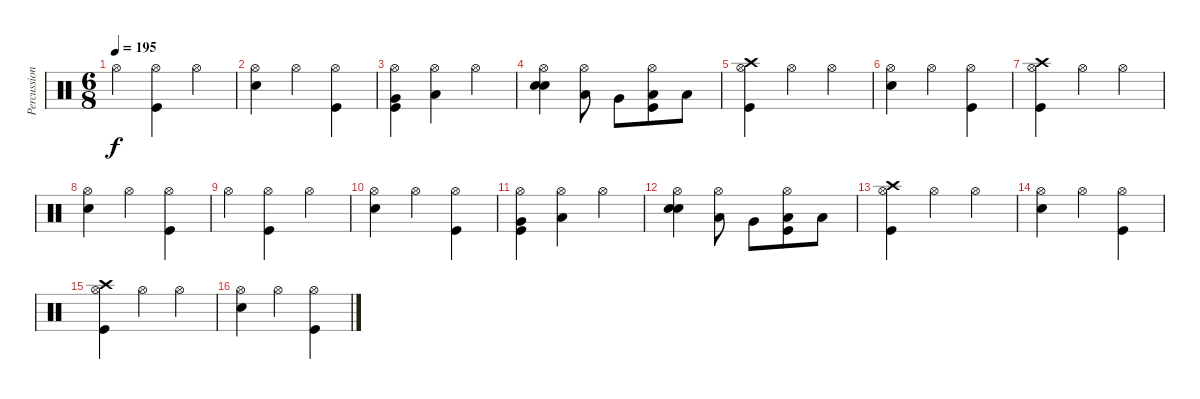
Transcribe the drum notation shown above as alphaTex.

\track ("Percussion" "Percussion") {instrument percussion}
\staff {score}
\articulation defaults
\ts (6 8)
\tempo 195
\clef neutral
\ks c "Hi-Hat (open)".4{dy f}
("Hi-Hat (open)" "Kick (hit)").4 "Hi-Hat (open)".4 |
("Hi-Hat (open)" "Electric Snare (hit)").4 "Hi-Hat (open)".4 ("Hi-Hat (open)" "Kick (hit)").4 |
("Very Low Tom (hit)" "Hi-Hat (open)" "Kick (hit)").4 ("Low Floor Tom (hit)" "Hi-Hat (open)").4 "Hi-Hat (open)".4 |
("Electric Snare (hit)" "Hi-Hat (open)" "Electric Snare (hit)").4 ("Low Tom (hit)" "Hi-Hat (open)").8 "Very Low Tom (hit)".8 ("Low Floor Tom (hit)" "Hi-Hat (open)" "Kick (hit)").8 "Low Floor Tom (hit)".8 |
("Crash high (hit)" "Hi-Hat (open)" "Kick (hit)").4 "Hi-Hat (open)".4 "Hi-Hat (open)".4 |
("Hi-Hat (open)" "Electric Snare (hit)").4 "Hi-Hat (open)".4 ("Hi-Hat (open)" "Kick (hit)").4 |
("Crash high (hit)" "Hi-Hat (open)" "Kick (hit)").4 "Hi-Hat (open)".4 "Hi-Hat (open)".4 |
("Hi-Hat (open)" "Electric Snare (hit)").4 "Hi-Hat (open)".4 ("Hi-Hat (open)" "Kick (hit)").4 |
"Hi-Hat (open)".4 ("Hi-Hat (open)" "Kick (hit)").4 "Hi-Hat (open)".4 |
("Hi-Hat (open)" "Electric Snare (hit)").4 "Hi-Hat (open)".4 ("Hi-Hat (open)" "Kick (hit)").4 |
("Very Low Tom (hit)" "Hi-Hat (open)" "Kick (hit)").4 ("Low Floor Tom (hit)" "Hi-Hat (open)").4 "Hi-Hat (open)".4 |
("Electric Snare (hit)" "Hi-Hat (open)" "Electric Snare (hit)").4 ("Low Tom (hit)" "Hi-Hat (open)").8 "Very Low Tom (hit)".8 ("Low Floor Tom (hit)" "Hi-Hat (open)" "Kick (hit)").8 "Low Floor Tom (hit)".8 |
("Crash high (hit)" "Hi-Hat (open)" "Kick (hit)").4 "Hi-Hat (open)".4 "Hi-Hat (open)".4 |
("Hi-Hat (open)" "Electric Snare (hit)").4 "Hi-Hat (open)".4 ("Hi-Hat (open)" "Kick (hit)").4 |
("Crash high (hit)" "Hi-Hat (open)" "Kick (hit)").4 "Hi-Hat (open)".4 "Hi-Hat (open)".4 |
("Hi-Hat (open)" "Electric Snare (hit)").4 "Hi-Hat (open)".4 ("Hi-Hat (open)" "Kick (hit)").4
